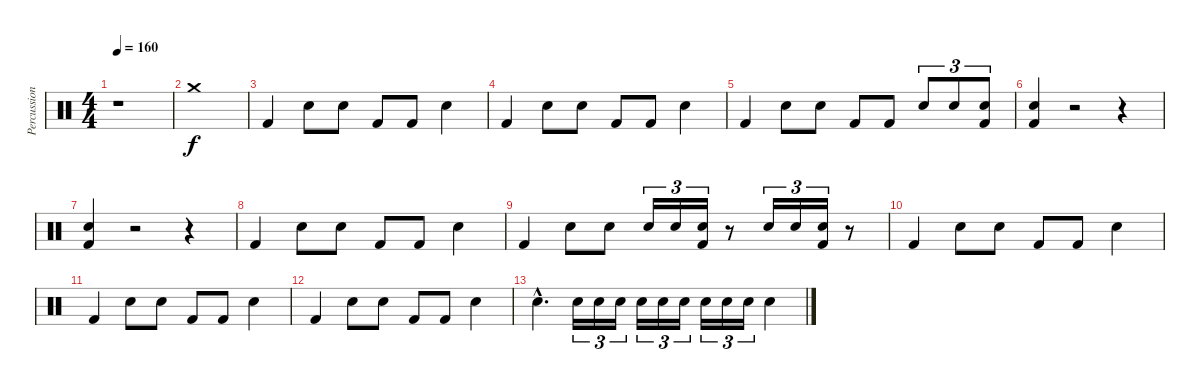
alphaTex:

\track ("Percussion" "Percussion") {instrument percussion}
\staff {score}
\articulation defaults
\ts (4 4)
\tempo 160
\clef neutral
\ks c
r.1{dy f} |
"Crash medium (hit)".1 |
"Kick (hit) 2".4 "Snare (hit) 2".8 "Snare (hit) 2".8 "Kick (hit) 2".8 "Kick (hit) 2".8 "Snare (hit) 2".4 |
"Kick (hit) 2".4 "Snare (hit) 2".8 "Snare (hit) 2".8 "Kick (hit) 2".8 "Kick (hit) 2".8 "Snare (hit) 2".4 |
"Kick (hit) 2".4 "Snare (hit) 2".8 "Snare (hit) 2".8 "Kick (hit) 2".8 "Kick (hit) 2".8 "Snare (hit) 2".8{tu (3 2)} "Snare (hit) 2".8{tu (3 2)} ("Snare (hit) 2" "Kick (hit) 2").8{tu (3 2)} |
("Snare (hit) 2" "Kick (hit) 2").4 r.2 r.4 |
("Snare (hit) 2" "Kick (hit) 2").4 r.2 r.4 |
"Kick (hit) 2".4 "Snare (hit) 2".8 "Snare (hit) 2".8 "Kick (hit) 2".8 "Kick (hit) 2".8 "Snare (hit) 2".4 |
"Kick (hit) 2".4 "Snare (hit) 2".8 "Snare (hit) 2".8 "Snare (hit) 2".16{tu (3 2)} "Snare (hit) 2".16{tu (3 2)} ("Snare (hit) 2" "Kick (hit) 2").16{tu (3 2)} r.8 "Snare (hit) 2".16{tu (3 2)} "Snare (hit) 2".16{tu (3 2)} ("Snare (hit) 2" "Kick (hit) 2").16{tu (3 2)} r.8 |
"Kick (hit) 2".4 "Snare (hit) 2".8 "Snare (hit) 2".8 "Kick (hit) 2".8 "Kick (hit) 2".8 "Snare (hit) 2".4 |
"Kick (hit) 2".4 "Snare (hit) 2".8 "Snare (hit) 2".8 "Kick (hit) 2".8 "Kick (hit) 2".8 "Snare (hit) 2".4 |
"Kick (hit) 2".4 "Snare (hit) 2".8 "Snare (hit) 2".8 "Kick (hit) 2".8 "Kick (hit) 2".8 "Snare (hit) 2".4 |
"Snare (hit) 2"{hac}.4{d} "Snare (hit) 2".16{tu (3 2)} "Snare (hit) 2".16{tu (3 2)} "Snare (hit) 2".16{tu (3 2)} "Snare (hit) 2".16{tu (3 2)} "Snare (hit) 2".16{tu (3 2)} "Snare (hit) 2".16{tu (3 2)} "Snare (hit) 2".16{tu (3 2)} "Snare (hit) 2".16{tu (3 2)} "Snare (hit) 2".16{tu (3 2)} "Snare (hit) 2".4
